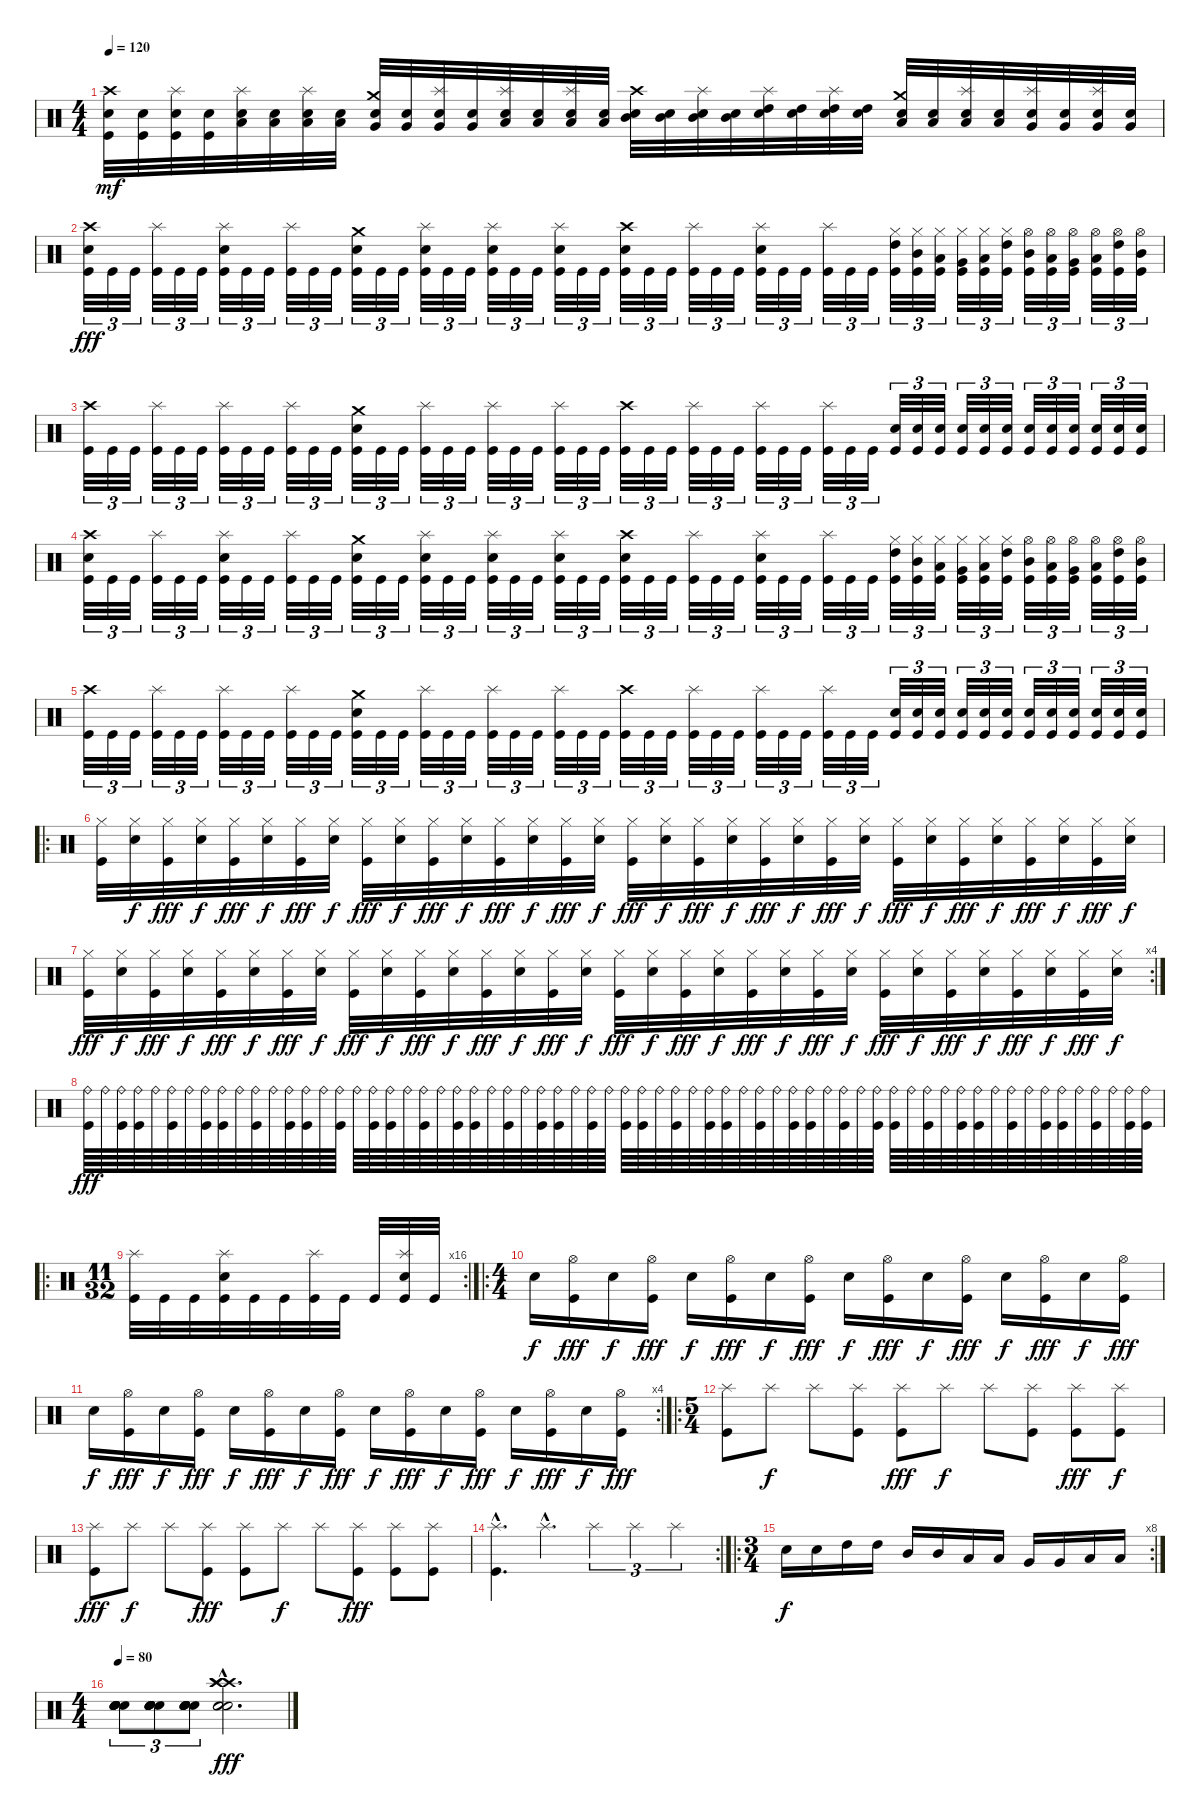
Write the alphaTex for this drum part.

\track "" {instrument percussion}
\staff {score}
\articulation defaults
\ts (4 4)
\tempo 120
\clef neutral
\ks c
("Crash high (hit)" "Kick (hit)" "Electric Snare (hit)").32{dy mf} ("Kick (hit)" "Electric Snare (hit)").32 ("Splash (hit)" "Kick (hit)" "Electric Snare (hit)").32 ("Kick (hit)" "Electric Snare (hit)").32 ("Splash (hit)" "Low Floor Tom (hit)" "Electric Snare (hit)").32 ("Low Floor Tom (hit)" "Electric Snare (hit)").32 ("Splash (hit)" "Low Floor Tom (hit)" "Electric Snare (hit)").32 ("Low Floor Tom (hit)" "Electric Snare (hit)").32 ("Crash medium (hit)" "Very Low Tom (hit)" "Electric Snare (hit)").32 ("Very Low Tom (hit)" "Electric Snare (hit)").32 ("Splash (hit)" "Very Low Tom (hit)" "Electric Snare (hit)").32 ("Very Low Tom (hit)" "Electric Snare (hit)").32 ("Splash (hit)" "Low Tom (hit)" "Electric Snare (hit)").32 ("Low Tom (hit)" "Electric Snare (hit)").32 ("Splash (hit)" "Low Tom (hit)" "Electric Snare (hit)").32 ("Low Tom (hit)" "Electric Snare (hit)").32 ("Crash high (hit)" "Mid Tom (hit)" "Electric Snare (hit)").32 ("Mid Tom (hit)" "Electric Snare (hit)").32 ("Splash (hit)" "Mid Tom (hit)" "Electric Snare (hit)").32 ("Mid Tom (hit)" "Electric Snare (hit)").32 ("Splash (hit)" "High Tom (hit)" "Electric Snare (hit)").32 ("High Tom (hit)" "Electric Snare (hit)").32 ("Splash (hit)" "High Tom (hit)" "Electric Snare (hit)").32 ("High Tom (hit)" "Electric Snare (hit)").32 ("Crash medium (hit)" "Low Tom (hit)" "Electric Snare (hit)").32 ("Low Tom (hit)" "Electric Snare (hit)").32 ("Splash (hit)" "Low Tom (hit)" "Electric Snare (hit)").32 ("Low Tom (hit)" "Electric Snare (hit)").32 ("Splash (hit)" "Very Low Tom (hit)" "Electric Snare (hit)").32 ("Very Low Tom (hit)" "Electric Snare (hit)").32 ("Splash (hit)" "Very Low Tom (hit)" "Electric Snare (hit)").32 ("Very Low Tom (hit)" "Electric Snare (hit)").32 |
("Crash high (hit)" "Electric Snare (hit)" "Kick (hit)").32{tu (3 2) dy fff} "Kick (hit)".32{tu (3 2)} "Kick (hit)".32{tu (3 2)} ("Splash (hit)" "Kick (hit)").32{tu (3 2)} "Kick (hit)".32{tu (3 2)} "Kick (hit)".32{tu (3 2)} ("Splash (hit)" "Electric Snare (hit)" "Kick (hit)").32{tu (3 2)} "Kick (hit)".32{tu (3 2)} "Kick (hit)".32{tu (3 2)} ("Splash (hit)" "Kick (hit)").32{tu (3 2)} "Kick (hit)".32{tu (3 2)} "Kick (hit)".32{tu (3 2)} ("Crash medium (hit)" "Electric Snare (hit)" "Kick (hit)").32{tu (3 2)} "Kick (hit)".32{tu (3 2)} "Kick (hit)".32{tu (3 2)} ("Splash (hit)" "Electric Snare (hit)" "Kick (hit)").32{tu (3 2)} "Kick (hit)".32{tu (3 2)} "Kick (hit)".32{tu (3 2)} ("Splash (hit)" "Electric Snare (hit)" "Kick (hit)").32{tu (3 2)} "Kick (hit)".32{tu (3 2)} "Kick (hit)".32{tu (3 2)} ("Splash (hit)" "Electric Snare (hit)" "Kick (hit)").32{tu (3 2)} "Kick (hit)".32{tu (3 2)} "Kick (hit)".32{tu (3 2)} ("Crash high (hit)" "Electric Snare (hit)" "Kick (hit)").32{tu (3 2)} "Kick (hit)".32{tu (3 2)} "Kick (hit)".32{tu (3 2)} ("Splash (hit)" "Kick (hit)").32{tu (3 2)} "Kick (hit)".32{tu (3 2)} "Kick (hit)".32{tu (3 2)} ("Splash (hit)" "Electric Snare (hit)" "Kick (hit)").32{tu (3 2)} "Kick (hit)".32{tu (3 2)} "Kick (hit)".32{tu (3 2)} ("Splash (hit)" "Kick (hit)").32{tu (3 2)} "Kick (hit)".32{tu (3 2)} "Kick (hit)".32{tu (3 2)} ("High Tom (hit)" "Hi-Hat (closed)" "Kick (hit)").32{tu (3 2)} ("Mid Tom (hit)" "Hi-Hat (closed)" "Kick (hit)").32{tu (3 2)} ("Low Tom (hit)" "Hi-Hat (closed)" "Kick (hit)").32{tu (3 2)} ("Very Low Tom (hit)" "Hi-Hat (closed)" "Kick (hit)").32{tu (3 2)} ("Low Floor Tom (hit)" "Hi-Hat (closed)" "Kick (hit)").32{tu (3 2)} ("High Tom (hit)" "Hi-Hat (closed)" "Kick (hit)").32{tu (3 2)} ("Mid Tom (hit)" "Hi-Hat (open)" "Kick (hit)").32{tu (3 2)} ("Low Tom (hit)" "Hi-Hat (open)" "Kick (hit)").32{tu (3 2)} ("Very Low Tom (hit)" "Hi-Hat (open)" "Kick (hit)").32{tu (3 2)} ("Low Floor Tom (hit)" "Hi-Hat (open)" "Kick (hit)").32{tu (3 2)} ("High Tom (hit)" "Hi-Hat (open)" "Kick (hit)").32{tu (3 2)} ("Mid Tom (hit)" "Hi-Hat (open)" "Kick (hit)").32{tu (3 2)} |
("Crash high (hit)" "Kick (hit)").32{tu (3 2)} "Kick (hit)".32{tu (3 2)} "Kick (hit)".32{tu (3 2)} ("Splash (hit)" "Kick (hit)").32{tu (3 2)} "Kick (hit)".32{tu (3 2)} "Kick (hit)".32{tu (3 2)} ("Splash (hit)" "Kick (hit)").32{tu (3 2)} "Kick (hit)".32{tu (3 2)} "Kick (hit)".32{tu (3 2)} ("Splash (hit)" "Kick (hit)").32{tu (3 2)} "Kick (hit)".32{tu (3 2)} "Kick (hit)".32{tu (3 2)} ("Crash medium (hit)" "Electric Snare (hit)" "Kick (hit)").32{tu (3 2)} "Kick (hit)".32{tu (3 2)} "Kick (hit)".32{tu (3 2)} ("Splash (hit)" "Kick (hit)").32{tu (3 2)} "Kick (hit)".32{tu (3 2)} "Kick (hit)".32{tu (3 2)} ("Splash (hit)" "Kick (hit)").32{tu (3 2)} "Kick (hit)".32{tu (3 2)} "Kick (hit)".32{tu (3 2)} ("Splash (hit)" "Kick (hit)").32{tu (3 2)} "Kick (hit)".32{tu (3 2)} "Kick (hit)".32{tu (3 2)} ("Crash high (hit)" "Kick (hit)").32{tu (3 2)} "Kick (hit)".32{tu (3 2)} "Kick (hit)".32{tu (3 2)} ("Splash (hit)" "Kick (hit)").32{tu (3 2)} "Kick (hit)".32{tu (3 2)} "Kick (hit)".32{tu (3 2)} ("Splash (hit)" "Kick (hit)").32{tu (3 2)} "Kick (hit)".32{tu (3 2)} "Kick (hit)".32{tu (3 2)} ("Splash (hit)" "Kick (hit)").32{tu (3 2)} "Kick (hit)".32{tu (3 2)} "Kick (hit)".32{tu (3 2)} ("Electric Snare (hit)" "Kick (hit)").32{tu (3 2)} ("Electric Snare (hit)" "Kick (hit)").32{tu (3 2)} ("Electric Snare (hit)" "Kick (hit)").32{tu (3 2)} ("Electric Snare (hit)" "Kick (hit)").32{tu (3 2)} ("Electric Snare (hit)" "Kick (hit)").32{tu (3 2)} ("Electric Snare (hit)" "Kick (hit)").32{tu (3 2)} ("Electric Snare (hit)" "Kick (hit)").32{tu (3 2)} ("Electric Snare (hit)" "Kick (hit)").32{tu (3 2)} ("Electric Snare (hit)" "Kick (hit)").32{tu (3 2)} ("Electric Snare (hit)" "Kick (hit)").32{tu (3 2)} ("Electric Snare (hit)" "Kick (hit)").32{tu (3 2)} ("Electric Snare (hit)" "Kick (hit)").32{tu (3 2)} |
("Crash high (hit)" "Electric Snare (hit)" "Kick (hit)").32{tu (3 2)} "Kick (hit)".32{tu (3 2)} "Kick (hit)".32{tu (3 2)} ("Splash (hit)" "Kick (hit)").32{tu (3 2)} "Kick (hit)".32{tu (3 2)} "Kick (hit)".32{tu (3 2)} ("Splash (hit)" "Electric Snare (hit)" "Kick (hit)").32{tu (3 2)} "Kick (hit)".32{tu (3 2)} "Kick (hit)".32{tu (3 2)} ("Splash (hit)" "Kick (hit)").32{tu (3 2)} "Kick (hit)".32{tu (3 2)} "Kick (hit)".32{tu (3 2)} ("Crash medium (hit)" "Electric Snare (hit)" "Kick (hit)").32{tu (3 2)} "Kick (hit)".32{tu (3 2)} "Kick (hit)".32{tu (3 2)} ("Splash (hit)" "Electric Snare (hit)" "Kick (hit)").32{tu (3 2)} "Kick (hit)".32{tu (3 2)} "Kick (hit)".32{tu (3 2)} ("Splash (hit)" "Electric Snare (hit)" "Kick (hit)").32{tu (3 2)} "Kick (hit)".32{tu (3 2)} "Kick (hit)".32{tu (3 2)} ("Splash (hit)" "Electric Snare (hit)" "Kick (hit)").32{tu (3 2)} "Kick (hit)".32{tu (3 2)} "Kick (hit)".32{tu (3 2)} ("Crash high (hit)" "Electric Snare (hit)" "Kick (hit)").32{tu (3 2)} "Kick (hit)".32{tu (3 2)} "Kick (hit)".32{tu (3 2)} ("Splash (hit)" "Kick (hit)").32{tu (3 2)} "Kick (hit)".32{tu (3 2)} "Kick (hit)".32{tu (3 2)} ("Splash (hit)" "Electric Snare (hit)" "Kick (hit)").32{tu (3 2)} "Kick (hit)".32{tu (3 2)} "Kick (hit)".32{tu (3 2)} ("Splash (hit)" "Kick (hit)").32{tu (3 2)} "Kick (hit)".32{tu (3 2)} "Kick (hit)".32{tu (3 2)} ("High Tom (hit)" "Hi-Hat (closed)" "Kick (hit)").32{tu (3 2)} ("Mid Tom (hit)" "Hi-Hat (closed)" "Kick (hit)").32{tu (3 2)} ("Low Tom (hit)" "Hi-Hat (closed)" "Kick (hit)").32{tu (3 2)} ("Very Low Tom (hit)" "Hi-Hat (closed)" "Kick (hit)").32{tu (3 2)} ("Low Floor Tom (hit)" "Hi-Hat (closed)" "Kick (hit)").32{tu (3 2)} ("High Tom (hit)" "Hi-Hat (closed)" "Kick (hit)").32{tu (3 2)} ("Mid Tom (hit)" "Hi-Hat (open)" "Kick (hit)").32{tu (3 2)} ("Low Tom (hit)" "Hi-Hat (open)" "Kick (hit)").32{tu (3 2)} ("Very Low Tom (hit)" "Hi-Hat (open)" "Kick (hit)").32{tu (3 2)} ("Low Floor Tom (hit)" "Hi-Hat (open)" "Kick (hit)").32{tu (3 2)} ("High Tom (hit)" "Hi-Hat (open)" "Kick (hit)").32{tu (3 2)} ("Mid Tom (hit)" "Hi-Hat (open)" "Kick (hit)").32{tu (3 2)} |
("Crash high (hit)" "Kick (hit)").32{tu (3 2)} "Kick (hit)".32{tu (3 2)} "Kick (hit)".32{tu (3 2)} ("Splash (hit)" "Kick (hit)").32{tu (3 2)} "Kick (hit)".32{tu (3 2)} "Kick (hit)".32{tu (3 2)} ("Splash (hit)" "Kick (hit)").32{tu (3 2)} "Kick (hit)".32{tu (3 2)} "Kick (hit)".32{tu (3 2)} ("Splash (hit)" "Kick (hit)").32{tu (3 2)} "Kick (hit)".32{tu (3 2)} "Kick (hit)".32{tu (3 2)} ("Crash medium (hit)" "Electric Snare (hit)" "Kick (hit)").32{tu (3 2)} "Kick (hit)".32{tu (3 2)} "Kick (hit)".32{tu (3 2)} ("Splash (hit)" "Kick (hit)").32{tu (3 2)} "Kick (hit)".32{tu (3 2)} "Kick (hit)".32{tu (3 2)} ("Splash (hit)" "Kick (hit)").32{tu (3 2)} "Kick (hit)".32{tu (3 2)} "Kick (hit)".32{tu (3 2)} ("Splash (hit)" "Kick (hit)").32{tu (3 2)} "Kick (hit)".32{tu (3 2)} "Kick (hit)".32{tu (3 2)} ("Crash high (hit)" "Kick (hit)").32{tu (3 2)} "Kick (hit)".32{tu (3 2)} "Kick (hit)".32{tu (3 2)} ("Splash (hit)" "Kick (hit)").32{tu (3 2)} "Kick (hit)".32{tu (3 2)} "Kick (hit)".32{tu (3 2)} ("Splash (hit)" "Kick (hit)").32{tu (3 2)} "Kick (hit)".32{tu (3 2)} "Kick (hit)".32{tu (3 2)} ("Splash (hit)" "Kick (hit)").32{tu (3 2)} "Kick (hit)".32{tu (3 2)} "Kick (hit)".32{tu (3 2)} ("Electric Snare (hit)" "Kick (hit)").32{tu (3 2)} ("Electric Snare (hit)" "Kick (hit)").32{tu (3 2)} ("Electric Snare (hit)" "Kick (hit)").32{tu (3 2)} ("Electric Snare (hit)" "Kick (hit)").32{tu (3 2)} ("Electric Snare (hit)" "Kick (hit)").32{tu (3 2)} ("Electric Snare (hit)" "Kick (hit)").32{tu (3 2)} ("Electric Snare (hit)" "Kick (hit)").32{tu (3 2)} ("Electric Snare (hit)" "Kick (hit)").32{tu (3 2)} ("Electric Snare (hit)" "Kick (hit)").32{tu (3 2)} ("Electric Snare (hit)" "Kick (hit)").32{tu (3 2)} ("Electric Snare (hit)" "Kick (hit)").32{tu (3 2)} ("Electric Snare (hit)" "Kick (hit)").32{tu (3 2)} |
\ro
("Hi-Hat (closed)" "Kick (hit)").32 ("Hi-Hat (closed)" "Snare (hit) 2").32{dy f} ("Hi-Hat (closed)" "Kick (hit)").32{dy fff} ("Hi-Hat (closed)" "Snare (hit) 2").32{dy f} ("Hi-Hat (closed)" "Kick (hit)").32{dy fff} ("Hi-Hat (closed)" "Snare (hit) 2").32{dy f} ("Hi-Hat (closed)" "Kick (hit)").32{dy fff} ("Hi-Hat (closed)" "Snare (hit) 2").32{dy f} ("Hi-Hat (closed)" "Kick (hit)").32{dy fff} ("Hi-Hat (closed)" "Snare (hit) 2").32{dy f} ("Hi-Hat (closed)" "Kick (hit)").32{dy fff} ("Hi-Hat (closed)" "Snare (hit) 2").32{dy f} ("Hi-Hat (closed)" "Kick (hit)").32{dy fff} ("Hi-Hat (closed)" "Snare (hit) 2").32{dy f} ("Hi-Hat (closed)" "Kick (hit)").32{dy fff} ("Hi-Hat (closed)" "Snare (hit) 2").32{dy f} ("Hi-Hat (closed)" "Kick (hit)").32{dy fff} ("Hi-Hat (closed)" "Snare (hit) 2").32{dy f} ("Hi-Hat (closed)" "Kick (hit)").32{dy fff} ("Hi-Hat (closed)" "Snare (hit) 2").32{dy f} ("Hi-Hat (closed)" "Kick (hit)").32{dy fff} ("Hi-Hat (closed)" "Snare (hit) 2").32{dy f} ("Hi-Hat (closed)" "Kick (hit)").32{dy fff} ("Hi-Hat (closed)" "Snare (hit) 2").32{dy f} ("Hi-Hat (closed)" "Kick (hit)").32{dy fff} ("Hi-Hat (closed)" "Snare (hit) 2").32{dy f} ("Hi-Hat (closed)" "Kick (hit)").32{dy fff} ("Hi-Hat (closed)" "Snare (hit) 2").32{dy f} ("Hi-Hat (closed)" "Kick (hit)").32{dy fff} ("Hi-Hat (closed)" "Snare (hit) 2").32{dy f} ("Hi-Hat (closed)" "Kick (hit)").32{dy fff} ("Hi-Hat (closed)" "Snare (hit) 2").32{dy f} |
\rc 4
("Hi-Hat (closed)" "Kick (hit)").32{dy fff} ("Hi-Hat (closed)" "Snare (hit) 2").32{dy f} ("Hi-Hat (closed)" "Kick (hit)").32{dy fff} ("Hi-Hat (closed)" "Snare (hit) 2").32{dy f} ("Hi-Hat (closed)" "Kick (hit)").32{dy fff} ("Hi-Hat (closed)" "Snare (hit) 2").32{dy f} ("Hi-Hat (closed)" "Kick (hit)").32{dy fff} ("Hi-Hat (closed)" "Snare (hit) 2").32{dy f} ("Hi-Hat (closed)" "Kick (hit)").32{dy fff} ("Hi-Hat (closed)" "Snare (hit) 2").32{dy f} ("Hi-Hat (closed)" "Kick (hit)").32{dy fff} ("Hi-Hat (closed)" "Snare (hit) 2").32{dy f} ("Hi-Hat (closed)" "Kick (hit)").32{dy fff} ("Hi-Hat (closed)" "Snare (hit) 2").32{dy f} ("Hi-Hat (closed)" "Kick (hit)").32{dy fff} ("Hi-Hat (closed)" "Snare (hit) 2").32{dy f} ("Hi-Hat (closed)" "Kick (hit)").32{dy fff} ("Hi-Hat (closed)" "Snare (hit) 2").32{dy f} ("Hi-Hat (closed)" "Kick (hit)").32{dy fff} ("Hi-Hat (closed)" "Snare (hit) 2").32{dy f} ("Hi-Hat (closed)" "Kick (hit)").32{dy fff} ("Hi-Hat (closed)" "Snare (hit) 2").32{dy f} ("Hi-Hat (closed)" "Kick (hit)").32{dy fff} ("Hi-Hat (closed)" "Snare (hit) 2").32{dy f} ("Hi-Hat (closed)" "Kick (hit)").32{dy fff} ("Hi-Hat (closed)" "Snare (hit) 2").32{dy f} ("Hi-Hat (closed)" "Kick (hit)").32{dy fff} ("Hi-Hat (closed)" "Snare (hit) 2").32{dy f} ("Hi-Hat (closed)" "Kick (hit)").32{dy fff} ("Hi-Hat (closed)" "Snare (hit) 2").32{dy f} ("Hi-Hat (closed)" "Kick (hit)").32{dy fff} ("Hi-Hat (closed)" "Snare (hit) 2").32{dy f} |
("Ride (bell)" "Kick (hit)").64{dy fff} "Ride (bell)".64 ("Ride (bell)" "Kick (hit)").64 ("Ride (bell)" "Kick (hit)").64 "Ride (bell)".64 ("Ride (bell)" "Kick (hit)").64 "Ride (bell)".64 ("Ride (bell)" "Kick (hit)").64 ("Ride (bell)" "Kick (hit)").64 "Ride (bell)".64 ("Ride (bell)" "Kick (hit)").64 "Ride (bell)".64 ("Ride (bell)" "Kick (hit)").64 ("Ride (bell)" "Kick (hit)").64 "Ride (bell)".64 ("Ride (bell)" "Kick (hit)").64 "Ride (bell)".64 ("Ride (bell)" "Kick (hit)").64 ("Ride (bell)" "Kick (hit)").64 "Ride (bell)".64 ("Ride (bell)" "Kick (hit)").64 "Ride (bell)".64 ("Ride (bell)" "Kick (hit)").64 ("Ride (bell)" "Kick (hit)").64 "Ride (bell)".64 ("Ride (bell)" "Kick (hit)").64 "Ride (bell)".64 ("Ride (bell)" "Kick (hit)").64 ("Ride (bell)" "Kick (hit)").64 "Ride (bell)".64 ("Ride (bell)" "Kick (hit)").64 "Ride (bell)".64 ("Ride (bell)" "Kick (hit)").64 ("Ride (bell)" "Kick (hit)").64 "Ride (bell)".64 ("Ride (bell)" "Kick (hit)").64 "Ride (bell)".64 ("Ride (bell)" "Kick (hit)").64 ("Ride (bell)" "Kick (hit)").64 "Ride (bell)".64 ("Ride (bell)" "Kick (hit)").64 "Ride (bell)".64 ("Ride (bell)" "Kick (hit)").64 ("Ride (bell)" "Kick (hit)").64 "Ride (bell)".64 ("Ride (bell)" "Kick (hit)").64 "Ride (bell)".64 ("Ride (bell)" "Kick (hit)").64 ("Ride (bell)" "Kick (hit)").64 "Ride (bell)".64 ("Ride (bell)" "Kick (hit)").64 "Ride (bell)".64 ("Ride (bell)" "Kick (hit)").64 ("Ride (bell)" "Kick (hit)").64 "Ride (bell)".64 ("Ride (bell)" "Kick (hit)").64 "Ride (bell)".64 ("Ride (bell)" "Kick (hit)").64 ("Ride (bell)" "Kick (hit)").64 "Ride (bell)".64 ("Ride (bell)" "Kick (hit)").64 "Ride (bell)".64 ("Ride (bell)" "Kick (hit)").64 ("Ride (bell)" "Kick (hit)").64 |
\ro
\rc 16
\ts (11 32)
("Splash (hit)" "Kick (hit)").32 "Kick (hit)".32 "Kick (hit)".32 ("Splash (hit)" "Snare (hit) 2" "Kick (hit)").32 "Kick (hit)".32 "Kick (hit)".32 ("Splash (hit)" "Kick (hit)").32 "Kick (hit)".32 "Kick (hit)".32 ("Splash (hit)" "Snare (hit) 2" "Kick (hit)").32 "Kick (hit)".32 |
\ro
\ts (4 4)
"Snare (hit) 2".16{dy f} ("Hi-Hat (open)" "Kick (hit)").16{dy fff} "Snare (hit) 2".16{dy f} ("Hi-Hat (open)" "Kick (hit)").16{dy fff} "Snare (hit) 2".16{dy f} ("Hi-Hat (open)" "Kick (hit)").16{dy fff} "Snare (hit) 2".16{dy f} ("Hi-Hat (open)" "Kick (hit)").16{dy fff} "Snare (hit) 2".16{dy f} ("Hi-Hat (open)" "Kick (hit)").16{dy fff} "Snare (hit) 2".16{dy f} ("Hi-Hat (open)" "Kick (hit)").16{dy fff} "Snare (hit) 2".16{dy f} ("Hi-Hat (open)" "Kick (hit)").16{dy fff} "Snare (hit) 2".16{dy f} ("Hi-Hat (open)" "Kick (hit)").16{dy fff} |
\rc 4 "Snare (hit) 2".16{dy f}
("Hi-Hat (open)" "Kick (hit)").16{dy fff} "Snare (hit) 2".16{dy f} ("Hi-Hat (open)" "Kick (hit)").16{dy fff} "Snare (hit) 2".16{dy f} ("Hi-Hat (open)" "Kick (hit)").16{dy fff} "Snare (hit) 2".16{dy f} ("Hi-Hat (open)" "Kick (hit)").16{dy fff} "Snare (hit) 2".16{dy f} ("Hi-Hat (open)" "Kick (hit)").16{dy fff} "Snare (hit) 2".16{dy f} ("Hi-Hat (open)" "Kick (hit)").16{dy fff} "Snare (hit) 2".16{dy f} ("Hi-Hat (open)" "Kick (hit)").16{dy fff} "Snare (hit) 2".16{dy f} ("Hi-Hat (open)" "Kick (hit)").16{dy fff} |
\ro
\ts (5 4)
("Splash (hit)" "Kick (hit)").8 "Splash (hit)".8{dy f} "Splash (hit)".8 ("Splash (hit)" "Kick (hit)").8 ("Splash (hit)" "Kick (hit)").8{dy fff} "Splash (hit)".8{dy f} "Splash (hit)".8 ("Splash (hit)" "Kick (hit)").8 ("Splash (hit)" "Kick (hit)").8{dy fff} ("Splash (hit)" "Kick (hit)").8{dy f} |
("Splash (hit)" "Kick (hit)").8{dy fff} "Splash (hit)".8{dy f} "Splash (hit)".8 ("Splash (hit)" "Kick (hit)").8{dy fff} ("Splash (hit)" "Kick (hit)").8 "Splash (hit)".8{dy f} "Splash (hit)".8 ("Splash (hit)" "Kick (hit)").8{dy fff} ("Splash (hit)" "Kick (hit)").8 ("Splash (hit)" "Kick (hit)").8 |
\rc 2
("Splash (hit)"{hac} "Kick (hit)"{hac}).4{d} "Splash (hit)"{hac}.4{d} "Splash (hit)".4{tu (3 2)} "Splash (hit)".4{tu (3 2)} "Splash (hit)".4{tu (3 2)} |
\ro
\rc 8
\ts (3 4)
"Snare (hit) 2".16{dy f} "Snare (hit) 2".16 "High Tom (hit)".16 "High Tom (hit)".16 "Mid Tom (hit)".16 "Mid Tom (hit)".16 "Low Tom (hit)".16 "Low Tom (hit)".16 "Very Low Tom (hit)".16 "Very Low Tom (hit)".16 "Low Floor Tom (hit)".16 "Low Floor Tom (hit)".16 |
\ts (4 4)
\tempo 80
("Snare (hit) 2" "Snare (hit) 2" "Snare (hit) 2" "Snare (hit) 2" "Snare (hit) 2" "Snare (hit) 2").8{tu (3 2)} ("Snare (hit) 2" "Snare (hit) 2" "Snare (hit) 2" "Snare (hit) 2" "Snare (hit) 2" "Snare (hit) 2").8{tu (3 2)} ("Snare (hit) 2" "Snare (hit) 2" "Snare (hit) 2" "Snare (hit) 2" "Snare (hit) 2" "Snare (hit) 2").8{tu (3 2)} ("Crash high (hit)"{hac} "Crash high (hit)"{hac} "Crash high (hit)"{hac} "Snare (hit) 2"{hac} "Snare (hit) 2"{hac} "Snare (hit) 2"{hac}).2{d dy fff}
